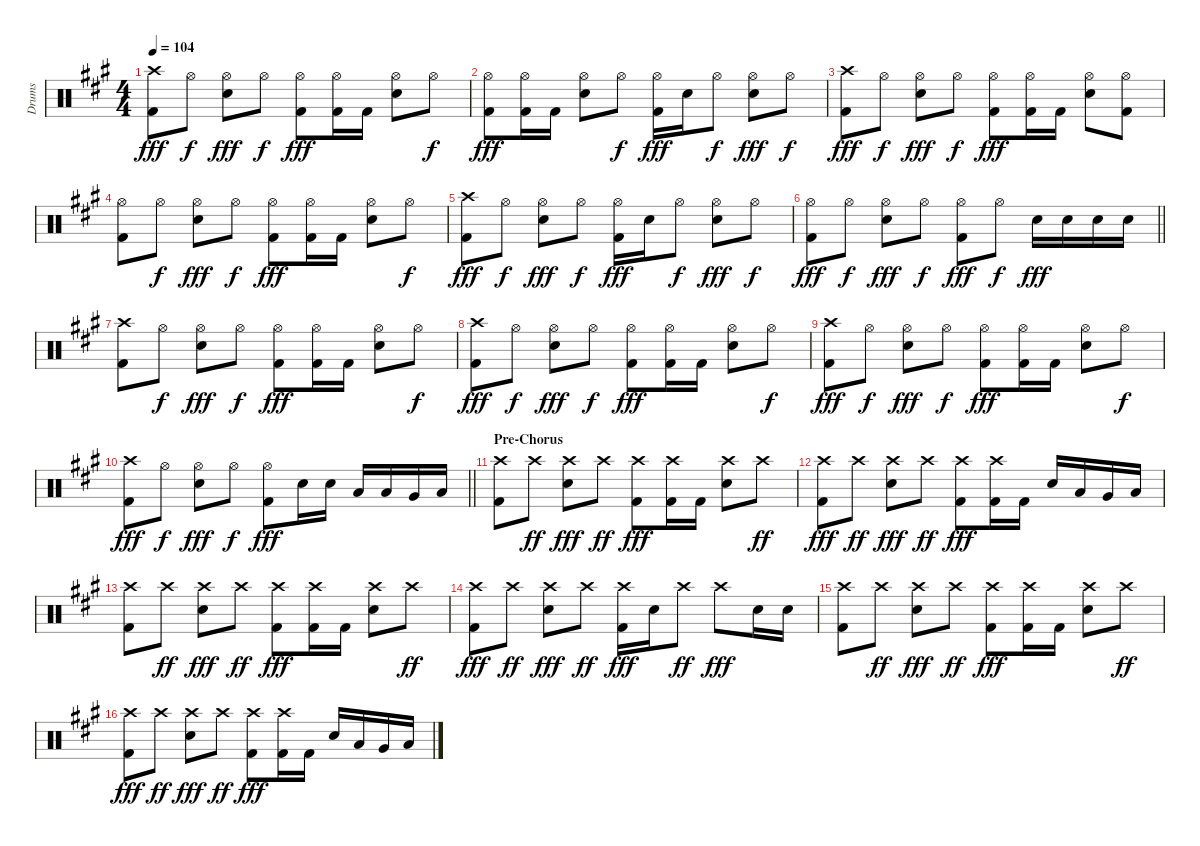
\track ("Drums" "Drums") {instrument percussion}
\staff {score}
\articulation defaults
\ts (4 4)
\tempo 104
\clef neutral
\ks a
("Crash high (hit)" "Kick (hit) 2").8{dy fff} "Hi-Hat (open)".8{dy f} ("Hi-Hat (open)" "Snare (hit) 2").8{dy fff} "Hi-Hat (open)".8{dy f} ("Hi-Hat (open)" "Kick (hit) 2").8{dy fff} ("Hi-Hat (open)" "Kick (hit) 2").16 "Kick (hit) 2".16 ("Hi-Hat (open)" "Snare (hit) 2").8 "Hi-Hat (open)".8{dy f} |
("Hi-Hat (open)" "Kick (hit) 2").8{dy fff} ("Hi-Hat (open)" "Kick (hit) 2").16 "Kick (hit) 2".16 ("Hi-Hat (open)" "Snare (hit) 2").8 "Hi-Hat (open)".8{dy f} ("Hi-Hat (open)" "Kick (hit) 2").16{dy fff} "Snare (hit) 2".16 "Hi-Hat (open)".8{dy f} ("Hi-Hat (open)" "Snare (hit) 2").8{dy fff} "Hi-Hat (open)".8{dy f} |
("Crash high (hit)" "Kick (hit) 2").8{dy fff} "Hi-Hat (open)".8{dy f} ("Hi-Hat (open)" "Snare (hit) 2").8{dy fff} "Hi-Hat (open)".8{dy f} ("Hi-Hat (open)" "Kick (hit) 2").8{dy fff} ("Hi-Hat (open)" "Kick (hit) 2").16 "Kick (hit) 2".16 ("Hi-Hat (open)" "Snare (hit) 2").8 ("Hi-Hat (open)" "Kick (hit) 2").8 |
("Hi-Hat (open)" "Kick (hit) 2").8 "Hi-Hat (open)".8{dy f} ("Hi-Hat (open)" "Snare (hit) 2").8{dy fff} "Hi-Hat (open)".8{dy f} ("Hi-Hat (open)" "Kick (hit) 2").8{dy fff} ("Hi-Hat (open)" "Kick (hit) 2").16 "Kick (hit) 2".16 ("Hi-Hat (open)" "Snare (hit) 2").8 "Hi-Hat (open)".8{dy f} |
("Crash high (hit)" "Kick (hit) 2").8{dy fff} "Hi-Hat (open)".8{dy f} ("Hi-Hat (open)" "Snare (hit) 2").8{dy fff} "Hi-Hat (open)".8{dy f} ("Hi-Hat (open)" "Kick (hit) 2").16{dy fff} "Snare (hit) 2".16 "Hi-Hat (open)".8{dy f} ("Hi-Hat (open)" "Snare (hit) 2").8{dy fff} "Hi-Hat (open)".8{dy f} |
\barLineRight lightlight
("Hi-Hat (open)" "Kick (hit) 2").8{dy fff} "Hi-Hat (open)".8{dy f} ("Hi-Hat (open)" "Snare (hit) 2").8{dy fff} "Hi-Hat (open)".8{dy f} ("Hi-Hat (open)" "Kick (hit) 2").8{dy fff} "Hi-Hat (open)".8{dy f} "Snare (hit) 2".16{dy fff} "Snare (hit) 2".16 "Snare (hit) 2".16 "Snare (hit) 2".16 |
("Crash high (hit)" "Kick (hit) 2").8 "Hi-Hat (open)".8{dy f} ("Hi-Hat (open)" "Snare (hit) 2").8{dy fff} "Hi-Hat (open)".8{dy f} ("Hi-Hat (open)" "Kick (hit) 2").8{dy fff} ("Hi-Hat (open)" "Kick (hit) 2").16 "Kick (hit) 2".16 ("Hi-Hat (open)" "Snare (hit) 2").8 "Hi-Hat (open)".8{dy f} |
("Crash high (hit)" "Kick (hit) 2").8{dy fff} "Hi-Hat (open)".8{dy f} ("Hi-Hat (open)" "Snare (hit) 2").8{dy fff} "Hi-Hat (open)".8{dy f} ("Hi-Hat (open)" "Kick (hit) 2").8{dy fff} ("Hi-Hat (open)" "Kick (hit) 2").16 "Kick (hit) 2".16 ("Hi-Hat (open)" "Snare (hit) 2").8 "Hi-Hat (open)".8{dy f} |
("Crash high (hit)" "Kick (hit) 2").8{dy fff} "Hi-Hat (open)".8{dy f} ("Hi-Hat (open)" "Snare (hit) 2").8{dy fff} "Hi-Hat (open)".8{dy f} ("Hi-Hat (open)" "Kick (hit) 2").8{dy fff} ("Hi-Hat (open)" "Kick (hit) 2").16 "Kick (hit) 2".16 ("Hi-Hat (open)" "Snare (hit) 2").8 "Hi-Hat (open)".8{dy f} |
\barLineRight lightlight
("Crash high (hit)" "Kick (hit) 2").8{dy fff} "Hi-Hat (open)".8{dy f} ("Hi-Hat (open)" "Snare (hit) 2").8{dy fff} "Hi-Hat (open)".8{dy f} ("Hi-Hat (open)" "Kick (hit) 2").8{dy fff} "Snare (hit) 2".16 "Snare (hit) 2".16 "Low Tom (hit)".16 "Low Tom (hit)".16 "Very Low Tom (hit)".16 "Low Floor Tom (hit)".16 |
\section ("" "Pre-Chorus")
("Crash high (hit)" "Kick (hit) 2").8 "Crash high (hit)".8{dy ff} ("Crash high (hit)" "Snare (hit) 2").8{dy fff} "Crash high (hit)".8{dy ff} ("Crash high (hit)" "Kick (hit) 2").8{dy fff} ("Crash high (hit)" "Kick (hit) 2").16 "Kick (hit) 2".16 ("Crash high (hit)" "Snare (hit) 2").8 "Crash high (hit)".8{dy ff} |
("Crash high (hit)" "Kick (hit) 2").8{dy fff} "Crash high (hit)".8{dy ff} ("Crash high (hit)" "Snare (hit) 2").8{dy fff} "Crash high (hit)".8{dy ff} ("Crash high (hit)" "Kick (hit) 2").8{dy fff} ("Crash high (hit)" "Kick (hit) 2").16 "Kick (hit) 2".16 "Snare (hit) 2".16 "Low Tom (hit)".16 "Very Low Tom (hit)".16 "Low Floor Tom (hit)".16 |
("Crash high (hit)" "Kick (hit) 2").8 "Crash high (hit)".8{dy ff} ("Crash high (hit)" "Snare (hit) 2").8{dy fff} "Crash high (hit)".8{dy ff} ("Crash high (hit)" "Kick (hit) 2").8{dy fff} ("Crash high (hit)" "Kick (hit) 2").16 "Kick (hit) 2".16 ("Crash high (hit)" "Snare (hit) 2").8 "Crash high (hit)".8{dy ff} |
("Crash high (hit)" "Kick (hit) 2").8{dy fff} "Crash high (hit)".8{dy ff} ("Crash high (hit)" "Snare (hit) 2").8{dy fff} "Crash high (hit)".8{dy ff} ("Crash high (hit)" "Kick (hit) 2").16{dy fff} "Snare (hit) 2".16 "Crash high (hit)".8{dy ff} "Crash high (hit)".8{dy fff} "Snare (hit) 2".16 "Snare (hit) 2".16 |
("Crash high (hit)" "Kick (hit) 2").8 "Crash high (hit)".8{dy ff} ("Crash high (hit)" "Snare (hit) 2").8{dy fff} "Crash high (hit)".8{dy ff} ("Crash high (hit)" "Kick (hit) 2").8{dy fff} ("Crash high (hit)" "Kick (hit) 2").16 "Kick (hit) 2".16 ("Crash high (hit)" "Snare (hit) 2").8 "Crash high (hit)".8{dy ff} |
("Crash high (hit)" "Kick (hit) 2").8{dy fff} "Crash high (hit)".8{dy ff} ("Crash high (hit)" "Snare (hit) 2").8{dy fff} "Crash high (hit)".8{dy ff} ("Crash high (hit)" "Kick (hit) 2").8{dy fff} ("Crash high (hit)" "Kick (hit) 2").16 "Kick (hit) 2".16 "Snare (hit) 2".16 "Low Tom (hit)".16 "Very Low Tom (hit)".16 "Low Floor Tom (hit)".16
